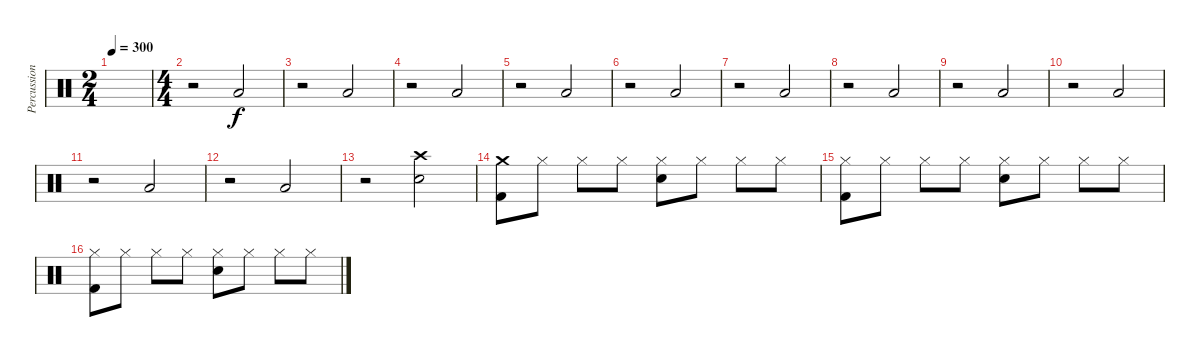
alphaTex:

\track ("Percussion" "Percussion") {instrument percussion}
\staff {score}
\articulation defaults
\ts (2 4)
\tempo 300
\clef neutral
\ks c
|
\ts (4 4)
r.2 "Low Floor Tom (hit)".2 |
r.2 "Low Floor Tom (hit)".2 |
r.2 "Low Floor Tom (hit)".2 |
r.2 "Low Floor Tom (hit)".2 |
r.2 "Low Floor Tom (hit)".2 |
r.2 "Low Floor Tom (hit)".2 |
r.2 "Low Floor Tom (hit)".2 |
r.2 "Low Floor Tom (hit)".2 |
r.2 "Low Floor Tom (hit)".2 |
r.2 "Low Floor Tom (hit)".2 |
r.2 "Low Floor Tom (hit)".2 |
r.2 ("Crash high (hit)" "Snare (hit) 2").2 |
("Crash medium (hit)" "Kick (hit) 2").8 "Hi-Hat (closed)".8 "Hi-Hat (closed)".8 "Hi-Hat (closed)".8 ("Snare (hit) 2" "Hi-Hat (closed)").8 "Hi-Hat (closed)".8 "Hi-Hat (closed)".8 "Hi-Hat (closed)".8 |
("Kick (hit) 2" "Hi-Hat (closed)").8 "Hi-Hat (closed)".8 "Hi-Hat (closed)".8 "Hi-Hat (closed)".8 ("Snare (hit) 2" "Hi-Hat (closed)").8 "Hi-Hat (closed)".8 "Hi-Hat (closed)".8 "Hi-Hat (closed)".8 |
("Kick (hit) 2" "Hi-Hat (closed)").8 "Hi-Hat (closed)".8 "Hi-Hat (closed)".8 "Hi-Hat (closed)".8 ("Snare (hit) 2" "Hi-Hat (closed)").8 "Hi-Hat (closed)".8 "Hi-Hat (closed)".8 "Hi-Hat (closed)".8
